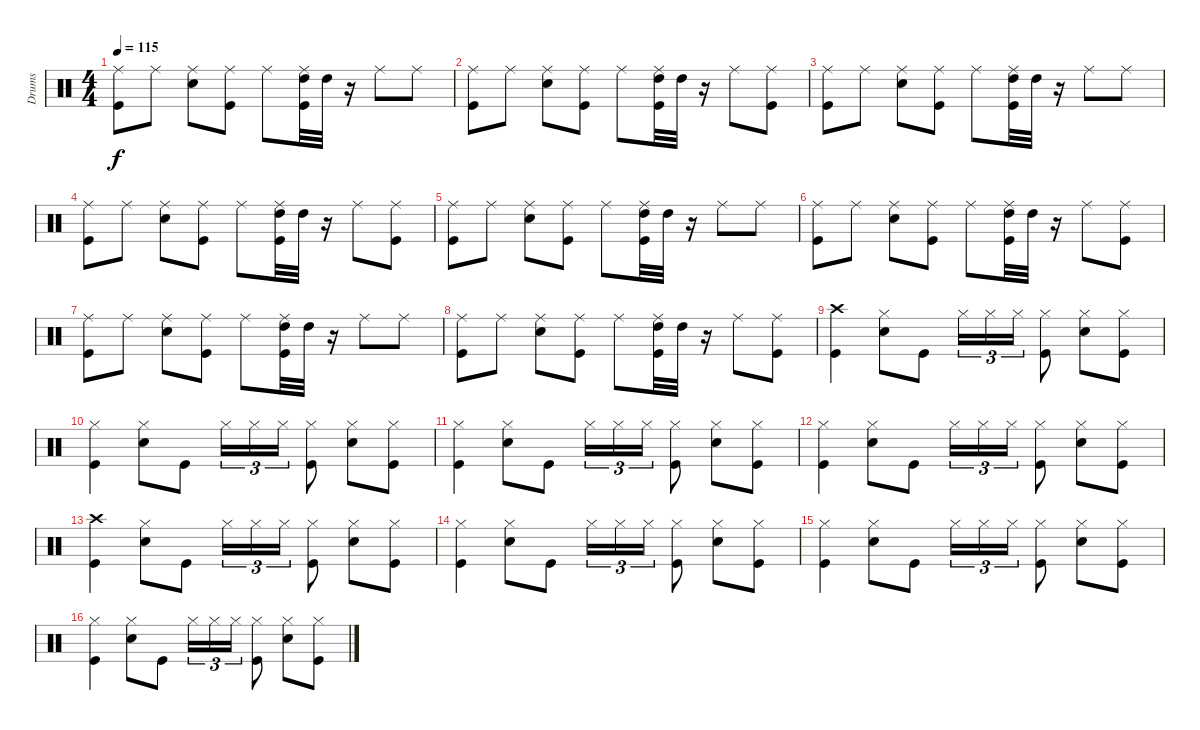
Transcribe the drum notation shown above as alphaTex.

\track ("Drums" "Drums") {instrument percussion}
\staff {score}
\articulation defaults
\ts (4 4)
\tempo 115
\clef neutral
\ks c
("Kick (hit)" "Ride (middle)").8{dy f} "Ride (middle)".8 ("Snare (hit) 2" "Ride (middle)").8 ("Kick (hit)" "Ride (middle)").8 "Ride (middle)".8 ("Kick (hit)" "High Tom (hit)" "Ride (middle)").32 "High Tom (hit)".32 r.16 "Ride (middle)".8 "Ride (middle)".8 |
("Kick (hit)" "Ride (middle)").8 "Ride (middle)".8 ("Snare (hit) 2" "Ride (middle)").8 ("Kick (hit)" "Ride (middle)").8 "Ride (middle)".8 ("Kick (hit)" "High Tom (hit)" "Ride (middle)").32 "High Tom (hit)".32 r.16 "Ride (middle)".8 ("Kick (hit)" "Ride (middle)").8 |
("Kick (hit)" "Ride (middle)").8 "Ride (middle)".8 ("Snare (hit) 2" "Ride (middle)").8 ("Kick (hit)" "Ride (middle)").8 "Ride (middle)".8 ("Kick (hit)" "High Tom (hit)" "Ride (middle)").32 "High Tom (hit)".32 r.16 "Ride (middle)".8 "Ride (middle)".8 |
("Kick (hit)" "Ride (middle)").8 "Ride (middle)".8 ("Snare (hit) 2" "Ride (middle)").8 ("Kick (hit)" "Ride (middle)").8 "Ride (middle)".8 ("Kick (hit)" "High Tom (hit)" "Ride (middle)").32 "High Tom (hit)".32 r.16 "Ride (middle)".8 ("Kick (hit)" "Ride (middle)").8 |
("Kick (hit)" "Ride (middle)").8 "Ride (middle)".8 ("Snare (hit) 2" "Ride (middle)").8 ("Kick (hit)" "Ride (middle)").8 "Ride (middle)".8 ("Kick (hit)" "High Tom (hit)" "Ride (middle)").32 "High Tom (hit)".32 r.16 "Ride (middle)".8 "Ride (middle)".8 |
("Kick (hit)" "Ride (middle)").8 "Ride (middle)".8 ("Snare (hit) 2" "Ride (middle)").8 ("Kick (hit)" "Ride (middle)").8 "Ride (middle)".8 ("Kick (hit)" "High Tom (hit)" "Ride (middle)").32 "High Tom (hit)".32 r.16 "Ride (middle)".8 ("Kick (hit)" "Ride (middle)").8 |
("Kick (hit)" "Ride (middle)").8 "Ride (middle)".8 ("Snare (hit) 2" "Ride (middle)").8 ("Kick (hit)" "Ride (middle)").8 "Ride (middle)".8 ("Kick (hit)" "High Tom (hit)" "Ride (middle)").32 "High Tom (hit)".32 r.16 "Ride (middle)".8 "Ride (middle)".8 |
("Kick (hit)" "Ride (middle)").8 "Ride (middle)".8 ("Snare (hit) 2" "Ride (middle)").8 ("Kick (hit)" "Ride (middle)").8 "Ride (middle)".8 ("Kick (hit)" "High Tom (hit)" "Ride (middle)").32 "High Tom (hit)".32 r.16 "Ride (middle)".8 ("Kick (hit)" "Ride (middle)").8 |
("Kick (hit)" "Crash high (hit)").4 ("Snare (hit) 2" "Hi-Hat (closed)").8 "Kick (hit)".8 "Hi-Hat (closed)".16{tu (3 2)} "Hi-Hat (closed)".16{tu (3 2)} "Hi-Hat (closed)".16{tu (3 2)} ("Kick (hit)" "Hi-Hat (closed)").8 ("Snare (hit) 2" "Hi-Hat (closed)").8 ("Kick (hit)" "Hi-Hat (closed)").8 |
("Kick (hit)" "Hi-Hat (closed)").4 ("Snare (hit) 2" "Hi-Hat (closed)").8 "Kick (hit)".8 "Hi-Hat (closed)".16{tu (3 2)} "Hi-Hat (closed)".16{tu (3 2)} "Hi-Hat (closed)".16{tu (3 2)} ("Kick (hit)" "Hi-Hat (closed)").8 ("Snare (hit) 2" "Hi-Hat (closed)").8 ("Kick (hit)" "Hi-Hat (closed)").8 |
("Kick (hit)" "Hi-Hat (closed)").4 ("Snare (hit) 2" "Hi-Hat (closed)").8 "Kick (hit)".8 "Hi-Hat (closed)".16{tu (3 2)} "Hi-Hat (closed)".16{tu (3 2)} "Hi-Hat (closed)".16{tu (3 2)} ("Kick (hit)" "Hi-Hat (closed)").8 ("Snare (hit) 2" "Hi-Hat (closed)").8 ("Kick (hit)" "Hi-Hat (closed)").8 |
("Kick (hit)" "Hi-Hat (closed)").4 ("Snare (hit) 2" "Hi-Hat (closed)").8 "Kick (hit)".8 "Hi-Hat (closed)".16{tu (3 2)} "Hi-Hat (closed)".16{tu (3 2)} "Hi-Hat (closed)".16{tu (3 2)} ("Kick (hit)" "Hi-Hat (closed)").8 ("Snare (hit) 2" "Hi-Hat (closed)").8 ("Kick (hit)" "Hi-Hat (closed)").8 |
("Kick (hit)" "Crash high (hit)").4 ("Snare (hit) 2" "Hi-Hat (closed)").8 "Kick (hit)".8 "Hi-Hat (closed)".16{tu (3 2)} "Hi-Hat (closed)".16{tu (3 2)} "Hi-Hat (closed)".16{tu (3 2)} ("Kick (hit)" "Hi-Hat (closed)").8 ("Snare (hit) 2" "Hi-Hat (closed)").8 ("Kick (hit)" "Hi-Hat (closed)").8 |
("Kick (hit)" "Hi-Hat (closed)").4 ("Snare (hit) 2" "Hi-Hat (closed)").8 "Kick (hit)".8 "Hi-Hat (closed)".16{tu (3 2)} "Hi-Hat (closed)".16{tu (3 2)} "Hi-Hat (closed)".16{tu (3 2)} ("Kick (hit)" "Hi-Hat (closed)").8 ("Snare (hit) 2" "Hi-Hat (closed)").8 ("Kick (hit)" "Hi-Hat (closed)").8 |
("Kick (hit)" "Hi-Hat (closed)").4 ("Snare (hit) 2" "Hi-Hat (closed)").8 "Kick (hit)".8 "Hi-Hat (closed)".16{tu (3 2)} "Hi-Hat (closed)".16{tu (3 2)} "Hi-Hat (closed)".16{tu (3 2)} ("Kick (hit)" "Hi-Hat (closed)").8 ("Snare (hit) 2" "Hi-Hat (closed)").8 ("Kick (hit)" "Hi-Hat (closed)").8 |
("Kick (hit)" "Hi-Hat (closed)").4 ("Snare (hit) 2" "Hi-Hat (closed)").8 "Kick (hit)".8 "Hi-Hat (closed)".16{tu (3 2)} "Hi-Hat (closed)".16{tu (3 2)} "Hi-Hat (closed)".16{tu (3 2)} ("Kick (hit)" "Hi-Hat (closed)").8 ("Snare (hit) 2" "Hi-Hat (closed)").8 ("Kick (hit)" "Hi-Hat (closed)").8
